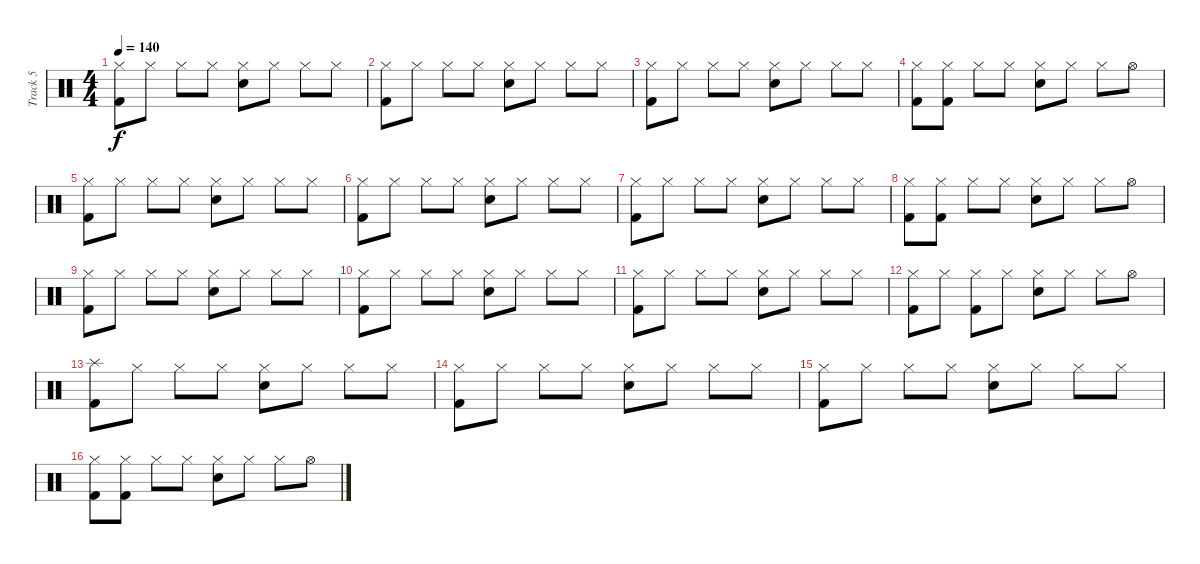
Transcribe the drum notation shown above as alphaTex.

\track ("Track 5" "Track 5") {instrument percussion}
\staff {score}
\articulation defaults
\ts (4 4)
\tempo 140
\clef neutral
\ks c
("Kick (hit) 2" "Hi-Hat (closed)").8{dy f} "Hi-Hat (closed)".8 "Hi-Hat (closed)".8 "Hi-Hat (closed)".8 ("Electric Snare (hit)" "Hi-Hat (closed)").8 "Hi-Hat (closed)".8 "Hi-Hat (closed)".8 "Hi-Hat (closed)".8 |
("Kick (hit) 2" "Hi-Hat (closed)").8 "Hi-Hat (closed)".8 "Hi-Hat (closed)".8 "Hi-Hat (closed)".8 ("Electric Snare (hit)" "Hi-Hat (closed)").8 "Hi-Hat (closed)".8 "Hi-Hat (closed)".8 "Hi-Hat (closed)".8 |
("Kick (hit) 2" "Hi-Hat (closed)").8 "Hi-Hat (closed)".8 "Hi-Hat (closed)".8 "Hi-Hat (closed)".8 ("Electric Snare (hit)" "Hi-Hat (closed)").8 "Hi-Hat (closed)".8 "Hi-Hat (closed)".8 "Hi-Hat (closed)".8 |
("Kick (hit) 2" "Hi-Hat (closed)").8 ("Hi-Hat (closed)" "Kick (hit) 2").8 "Hi-Hat (closed)".8 "Hi-Hat (closed)".8 ("Electric Snare (hit)" "Hi-Hat (closed)").8 "Hi-Hat (closed)".8 "Hi-Hat (closed)".8 "Hi-Hat (open)".8 |
("Kick (hit) 2" "Hi-Hat (closed)").8 "Hi-Hat (closed)".8 "Hi-Hat (closed)".8 "Hi-Hat (closed)".8 ("Electric Snare (hit)" "Hi-Hat (closed)").8 "Hi-Hat (closed)".8 "Hi-Hat (closed)".8 "Hi-Hat (closed)".8 |
("Kick (hit) 2" "Hi-Hat (closed)").8 "Hi-Hat (closed)".8 "Hi-Hat (closed)".8 "Hi-Hat (closed)".8 ("Electric Snare (hit)" "Hi-Hat (closed)").8 "Hi-Hat (closed)".8 "Hi-Hat (closed)".8 "Hi-Hat (closed)".8 |
("Kick (hit) 2" "Hi-Hat (closed)").8 "Hi-Hat (closed)".8 "Hi-Hat (closed)".8 "Hi-Hat (closed)".8 ("Electric Snare (hit)" "Hi-Hat (closed)").8 "Hi-Hat (closed)".8 "Hi-Hat (closed)".8 "Hi-Hat (closed)".8 |
("Kick (hit) 2" "Hi-Hat (closed)").8 ("Hi-Hat (closed)" "Kick (hit) 2").8 "Hi-Hat (closed)".8 "Hi-Hat (closed)".8 ("Electric Snare (hit)" "Hi-Hat (closed)").8 "Hi-Hat (closed)".8 "Hi-Hat (closed)".8 "Hi-Hat (open)".8 |
("Kick (hit) 2" "Hi-Hat (closed)").8 "Hi-Hat (closed)".8 "Hi-Hat (closed)".8 "Hi-Hat (closed)".8 ("Electric Snare (hit)" "Hi-Hat (closed)").8 "Hi-Hat (closed)".8 "Hi-Hat (closed)".8 "Hi-Hat (closed)".8 |
("Kick (hit) 2" "Hi-Hat (closed)").8 "Hi-Hat (closed)".8 "Hi-Hat (closed)".8 "Hi-Hat (closed)".8 ("Electric Snare (hit)" "Hi-Hat (closed)").8 "Hi-Hat (closed)".8 "Hi-Hat (closed)".8 "Hi-Hat (closed)".8 |
("Kick (hit) 2" "Hi-Hat (closed)").8 "Hi-Hat (closed)".8 "Hi-Hat (closed)".8 "Hi-Hat (closed)".8 ("Electric Snare (hit)" "Hi-Hat (closed)").8 "Hi-Hat (closed)".8 "Hi-Hat (closed)".8 "Hi-Hat (closed)".8 |
("Kick (hit) 2" "Hi-Hat (closed)").8 "Hi-Hat (closed)".8 ("Hi-Hat (closed)" "Kick (hit) 2").8{beam Down} "Hi-Hat (closed)".8{beam Down} ("Electric Snare (hit)" "Hi-Hat (closed)").8 "Hi-Hat (closed)".8 "Hi-Hat (closed)".8 "Hi-Hat (open)".8 |
("Kick (hit) 2" "Splash (hit)").8 "Hi-Hat (closed)".8 "Hi-Hat (closed)".8 "Hi-Hat (closed)".8 ("Electric Snare (hit)" "Hi-Hat (closed)").8 "Hi-Hat (closed)".8 "Hi-Hat (closed)".8 "Hi-Hat (closed)".8 |
("Kick (hit) 2" "Hi-Hat (closed)").8 "Hi-Hat (closed)".8 "Hi-Hat (closed)".8 "Hi-Hat (closed)".8 ("Electric Snare (hit)" "Hi-Hat (closed)").8 "Hi-Hat (closed)".8 "Hi-Hat (closed)".8 "Hi-Hat (closed)".8 |
("Kick (hit) 2" "Hi-Hat (closed)").8 "Hi-Hat (closed)".8 "Hi-Hat (closed)".8 "Hi-Hat (closed)".8 ("Electric Snare (hit)" "Hi-Hat (closed)").8 "Hi-Hat (closed)".8 "Hi-Hat (closed)".8 "Hi-Hat (closed)".8 |
("Kick (hit) 2" "Hi-Hat (closed)").8 ("Hi-Hat (closed)" "Kick (hit) 2").8 "Hi-Hat (closed)".8 "Hi-Hat (closed)".8 ("Electric Snare (hit)" "Hi-Hat (closed)").8 "Hi-Hat (closed)".8 "Hi-Hat (closed)".8 "Hi-Hat (open)".8
